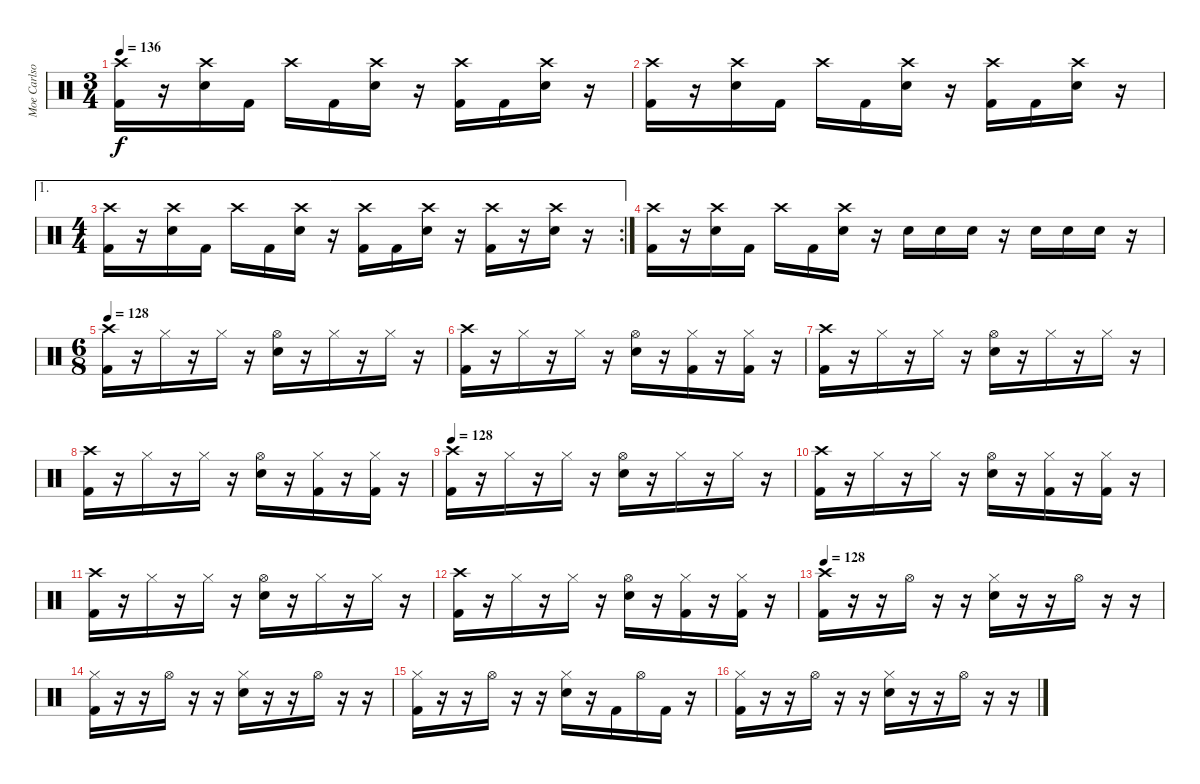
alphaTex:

\track ("Moe Carlson" "Moe Carlso") {instrument percussion}
\staff {score}
\articulation defaults
\ts (3 4)
\tempo 136
\clef neutral
\ks c
("Crash high (hit)" "Kick (hit) 2").16{dy f} r.16 ("Crash high (hit)" "Electric Snare (hit)").16 "Kick (hit) 2".16 "Crash high (hit)".16 "Kick (hit) 2".16 ("Crash high (hit)" "Electric Snare (hit)").16 r.16 ("Crash high (hit)" "Kick (hit) 2").16 "Kick (hit) 2".16 ("Crash high (hit)" "Electric Snare (hit)").16 r.16 |
("Crash high (hit)" "Kick (hit) 2").16 r.16 ("Crash high (hit)" "Electric Snare (hit)").16 "Kick (hit) 2".16 "Crash high (hit)".16 "Kick (hit) 2".16 ("Crash high (hit)" "Electric Snare (hit)").16 r.16 ("Crash high (hit)" "Kick (hit) 2").16 "Kick (hit) 2".16 ("Crash high (hit)" "Electric Snare (hit)").16 r.16 |
\ae 1
\rc 2
\ts (4 4)
("Crash high (hit)" "Kick (hit) 2").16 r.16 ("Crash high (hit)" "Electric Snare (hit)").16 "Kick (hit) 2".16 "Crash high (hit)".16 "Kick (hit) 2".16 ("Crash high (hit)" "Electric Snare (hit)").16 r.16 ("Crash high (hit)" "Kick (hit) 2").16 "Kick (hit) 2".16 ("Crash high (hit)" "Electric Snare (hit)").16 r.16 ("Crash high (hit)" "Kick (hit) 2").16 r.16 ("Crash high (hit)" "Electric Snare (hit)").16 r.16 |
("Crash high (hit)" "Kick (hit) 2").16 r.16 ("Crash high (hit)" "Electric Snare (hit)").16 "Kick (hit) 2".16 "Crash high (hit)".16 "Kick (hit) 2".16 ("Crash high (hit)" "Electric Snare (hit)").16 r.16 "Electric Snare (hit)".16 "Electric Snare (hit)".16 "Electric Snare (hit)".16 r.16 "Electric Snare (hit)".16 "Electric Snare (hit)".16 "Electric Snare (hit)".16 r.16 |
\ts (6 8)
\tempo 128
("Crash high (hit)" "Kick (hit) 2").16 r.16 "Hi-Hat (closed)".16 r.16 "Hi-Hat (closed)".16 r.16 ("Hi-Hat (open)" "Electric Snare (hit)").16 r.16 "Hi-Hat (closed)".16 r.16 "Hi-Hat (closed)".16 r.16 |
("Crash high (hit)" "Kick (hit) 2").16 r.16 "Hi-Hat (closed)".16 r.16 "Hi-Hat (closed)".16 r.16 ("Hi-Hat (open)" "Electric Snare (hit)").16 r.16 ("Hi-Hat (closed)" "Kick (hit) 2").16 r.16 ("Hi-Hat (closed)" "Kick (hit) 2").16 r.16 |
("Crash high (hit)" "Kick (hit) 2").16 r.16 "Hi-Hat (closed)".16 r.16 "Hi-Hat (closed)".16 r.16 ("Hi-Hat (open)" "Electric Snare (hit)").16 r.16 "Hi-Hat (closed)".16 r.16 "Hi-Hat (closed)".16 r.16 |
("Crash high (hit)" "Kick (hit) 2").16 r.16 "Hi-Hat (closed)".16 r.16 "Hi-Hat (closed)".16 r.16 ("Hi-Hat (open)" "Electric Snare (hit)").16 r.16 ("Hi-Hat (closed)" "Kick (hit) 2").16 r.16 ("Hi-Hat (closed)" "Kick (hit) 2").16 r.16 |
\tempo 128
("Crash high (hit)" "Kick (hit) 2").16 r.16 "Hi-Hat (closed)".16 r.16 "Hi-Hat (closed)".16 r.16 ("Hi-Hat (open)" "Electric Snare (hit)").16 r.16 "Hi-Hat (closed)".16 r.16 "Hi-Hat (closed)".16 r.16 |
("Crash high (hit)" "Kick (hit) 2").16 r.16 "Hi-Hat (closed)".16 r.16 "Hi-Hat (closed)".16 r.16 ("Hi-Hat (open)" "Electric Snare (hit)").16 r.16 ("Hi-Hat (closed)" "Kick (hit) 2").16 r.16 ("Hi-Hat (closed)" "Kick (hit) 2").16 r.16 |
("Crash high (hit)" "Kick (hit) 2").16 r.16 "Hi-Hat (closed)".16 r.16 "Hi-Hat (closed)".16 r.16 ("Hi-Hat (open)" "Electric Snare (hit)").16 r.16 "Hi-Hat (closed)".16 r.16 "Hi-Hat (closed)".16 r.16 |
("Crash high (hit)" "Kick (hit) 2").16 r.16 "Hi-Hat (closed)".16 r.16 "Hi-Hat (closed)".16 r.16 ("Hi-Hat (open)" "Electric Snare (hit)").16 r.16 ("Hi-Hat (closed)" "Kick (hit) 2").16 r.16 ("Hi-Hat (closed)" "Kick (hit) 2").16 r.16 |
\tempo 128
("Crash high (hit)" "Kick (hit) 2").16 r.16 r.16 "Hi-Hat (open)".16 r.16 r.16 ("Hi-Hat (closed)" "Electric Snare (hit)").16 r.16 r.16 "Hi-Hat (open)".16 r.16 r.16 |
("Hi-Hat (closed)" "Kick (hit) 2").16 r.16 r.16 "Hi-Hat (open)".16 r.16 r.16 ("Hi-Hat (closed)" "Electric Snare (hit)").16 r.16 r.16 "Hi-Hat (open)".16 r.16 r.16 |
("Hi-Hat (closed)" "Kick (hit) 2").16 r.16 r.16 "Hi-Hat (open)".16 r.16 r.16 ("Hi-Hat (closed)" "Electric Snare (hit)").16 r.16 "Kick (hit) 2".16 "Hi-Hat (open)".16 "Kick (hit) 2".16 r.16 |
("Hi-Hat (closed)" "Kick (hit) 2").16 r.16 r.16 "Hi-Hat (open)".16 r.16 r.16 ("Hi-Hat (closed)" "Electric Snare (hit)").16 r.16 r.16 "Hi-Hat (open)".16 r.16 r.16
